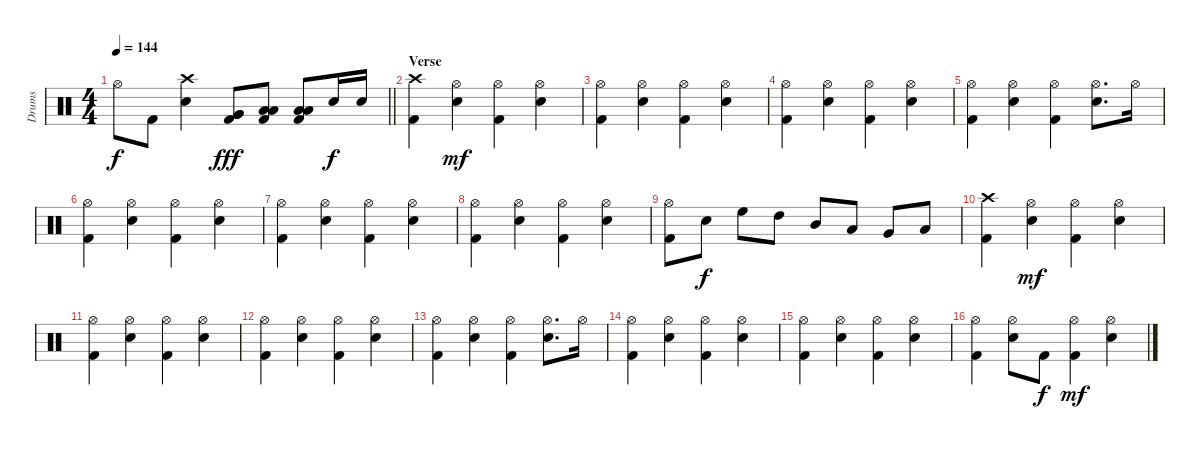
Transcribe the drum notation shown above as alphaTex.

\track ("Drums" "Drums") {instrument percussion}
\staff {score}
\articulation defaults
\ts (4 4)
\tempo 144
\clef neutral
\barLineRight lightlight
\ks c "Hi-Hat (open)".8{dy f} "Kick (hit) 2".8
("Crash high (hit)" "Snare (hit) 2").4 ("Kick (hit) 2" "Very Low Tom (hit)" "Very Low Tom (hit)").8{dy fff} ("Kick (hit) 2" "Low Floor Tom (hit)" "Low Floor Tom (hit)").8 ("Kick (hit) 2" "Low Floor Tom (hit)" "Low Floor Tom (hit)").8 "Snare (hit) 2".16{dy f} "Snare (hit) 2".16 |
\section ("" "Verse")
("Kick (hit) 2" "Crash high (hit)").4 ("Hi-Hat (open)" "Snare (hit) 2").4{dy mf} ("Kick (hit) 2" "Hi-Hat (open)").4 ("Hi-Hat (open)" "Snare (hit) 2").4 |
("Kick (hit) 2" "Hi-Hat (open)").4 ("Hi-Hat (open)" "Snare (hit) 2").4 ("Kick (hit) 2" "Hi-Hat (open)").4 ("Hi-Hat (open)" "Snare (hit) 2").4 |
("Kick (hit) 2" "Hi-Hat (open)").4 ("Hi-Hat (open)" "Snare (hit) 2").4 ("Kick (hit) 2" "Hi-Hat (open)").4 ("Hi-Hat (open)" "Snare (hit) 2").4 |
("Kick (hit) 2" "Hi-Hat (open)").4 ("Hi-Hat (open)" "Snare (hit) 2").4 ("Kick (hit) 2" "Hi-Hat (open)").4 ("Hi-Hat (open)" "Snare (hit) 2").8{d} "Hi-Hat (open)".16 |
("Kick (hit) 2" "Hi-Hat (open)").4 ("Hi-Hat (open)" "Snare (hit) 2").4 ("Kick (hit) 2" "Hi-Hat (open)").4 ("Hi-Hat (open)" "Snare (hit) 2").4 |
("Kick (hit) 2" "Hi-Hat (open)").4 ("Hi-Hat (open)" "Snare (hit) 2").4 ("Kick (hit) 2" "Hi-Hat (open)").4 ("Hi-Hat (open)" "Snare (hit) 2").4 |
("Kick (hit) 2" "Hi-Hat (open)").4 ("Hi-Hat (open)" "Snare (hit) 2").4 ("Kick (hit) 2" "Hi-Hat (open)").4 ("Hi-Hat (open)" "Snare (hit) 2").4 |
("Kick (hit) 2" "Hi-Hat (open)").8 "Snare (hit) 2".8{dy f} "High Floor Tom (hit)".8 "High Tom (hit)".8 "Mid Tom (hit)".8 "Low Tom (hit)".8 "Very Low Tom (hit)".8 "Low Floor Tom (hit)".8 |
("Kick (hit) 2" "Crash high (hit)").4 ("Hi-Hat (open)" "Snare (hit) 2").4{dy mf} ("Kick (hit) 2" "Hi-Hat (open)").4 ("Hi-Hat (open)" "Snare (hit) 2").4 |
("Kick (hit) 2" "Hi-Hat (open)").4 ("Hi-Hat (open)" "Snare (hit) 2").4 ("Kick (hit) 2" "Hi-Hat (open)").4 ("Hi-Hat (open)" "Snare (hit) 2").4 |
("Kick (hit) 2" "Hi-Hat (open)").4 ("Hi-Hat (open)" "Snare (hit) 2").4 ("Kick (hit) 2" "Hi-Hat (open)").4 ("Hi-Hat (open)" "Snare (hit) 2").4 |
("Kick (hit) 2" "Hi-Hat (open)").4 ("Hi-Hat (open)" "Snare (hit) 2").4 ("Kick (hit) 2" "Hi-Hat (open)").4 ("Hi-Hat (open)" "Snare (hit) 2").8{d} "Hi-Hat (open)".16 |
("Kick (hit) 2" "Hi-Hat (open)").4 ("Hi-Hat (open)" "Snare (hit) 2").4 ("Kick (hit) 2" "Hi-Hat (open)").4 ("Hi-Hat (open)" "Snare (hit) 2").4 |
("Kick (hit) 2" "Hi-Hat (open)").4 ("Hi-Hat (open)" "Snare (hit) 2").4 ("Kick (hit) 2" "Hi-Hat (open)").4 ("Hi-Hat (open)" "Snare (hit) 2").4 |
("Kick (hit) 2" "Hi-Hat (open)").4 ("Hi-Hat (open)" "Snare (hit) 2").8 "Kick (hit) 2".8{dy f} ("Kick (hit) 2" "Hi-Hat (open)").4{dy mf} ("Hi-Hat (open)" "Snare (hit) 2").4
